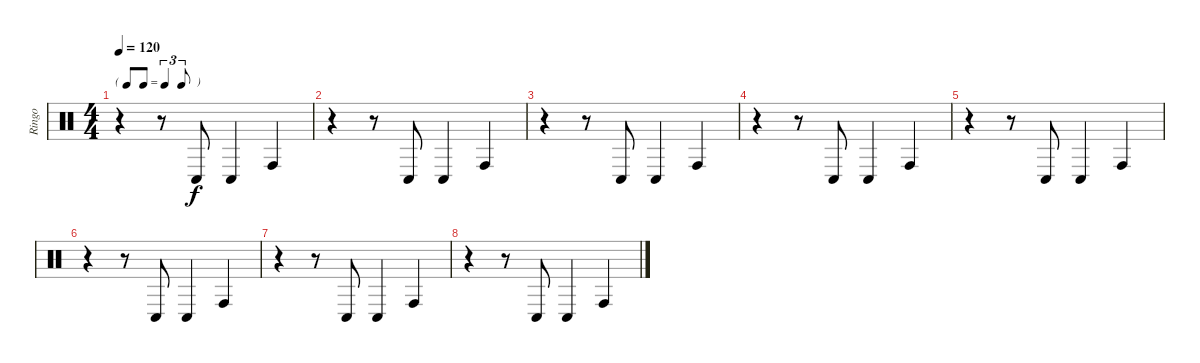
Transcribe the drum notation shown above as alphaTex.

\track ("Ringo" "Ringo") {instrument percussion}
\staff {score}
\articulation defaults
\ts (4 4)
\tf triplet8th
\tempo 120
\clef neutral
\ks c
r.4{dy f} r.8 "Conga low (hit)".8 "Conga low (hit)".4 "Conga high (hit)".4 |
r.4 r.8 "Conga low (hit)".8 "Conga low (hit)".4 "Conga high (hit)".4 |
r.4 r.8 "Conga low (hit)".8 "Conga low (hit)".4 "Conga high (hit)".4 |
r.4 r.8 "Conga low (hit)".8 "Conga low (hit)".4 "Conga high (hit)".4 |
r.4{volume 10} r.8 "Conga low (hit)".8 "Conga low (hit)".4 "Conga high (hit)".4 |
r.4{volume 6} r.8 "Conga low (hit)".8 "Conga low (hit)".4 "Conga high (hit)".4 |
r.4{volume 3} r.8 "Conga low (hit)".8 "Conga low (hit)".4 "Conga high (hit)".4 |
r.4{volume 1} r.8 "Conga low (hit)".8 "Conga low (hit)".4 "Conga high (hit)".4
